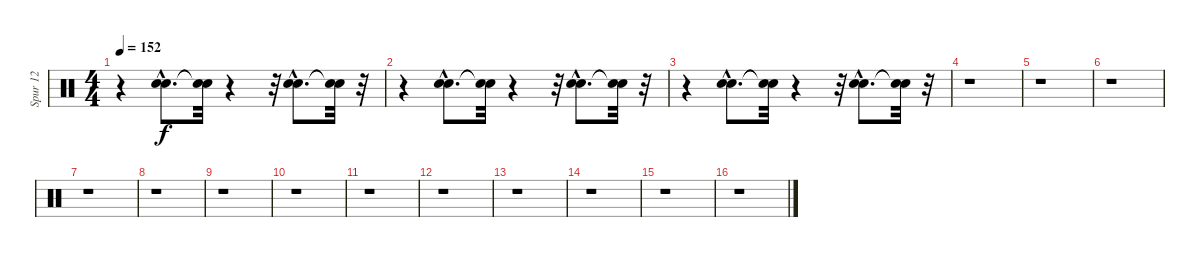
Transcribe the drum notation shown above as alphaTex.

\track ("Spur 12" "Spur 12") {instrument percussion}
\staff {score}
\articulation defaults
\ts (4 4)
\tempo 152
\clef neutral
\ks c
r.4{dy f} ("Hand Clap (hit)"{hac} "Electric Snare (hit)"{hac}).8{d} ("Snare (hit)"{t} "Snare (hit)"{t}).32 r.4 r.32 ("Hand Clap (hit)"{hac} "Electric Snare (hit)"{hac}).8{d} ("Snare (hit)"{t} "Snare (hit)"{t}).32 r.32 |
r.4 ("Hand Clap (hit)"{hac} "Electric Snare (hit)"{hac}).8{d} ("Snare (hit)"{t} "Snare (hit)"{t}).32 r.4 r.32 ("Hand Clap (hit)"{hac} "Electric Snare (hit)"{hac}).8{d} ("Snare (hit)"{t} "Snare (hit)"{t}).32 r.32 |
r.4 ("Hand Clap (hit)"{hac} "Electric Snare (hit)"{hac}).8{d} ("Snare (hit)"{t} "Snare (hit)"{t}).32 r.4 r.32 ("Hand Clap (hit)"{hac} "Electric Snare (hit)"{hac}).8{d} ("Snare (hit)"{t} "Snare (hit)"{t}).32 r.32 |
r.1 |
r.1 |
r.1 |
r.1 |
r.1 |
r.1 |
r.1 |
r.1 |
r.1 |
r.1 |
r.1 |
r.1 |
r.1
